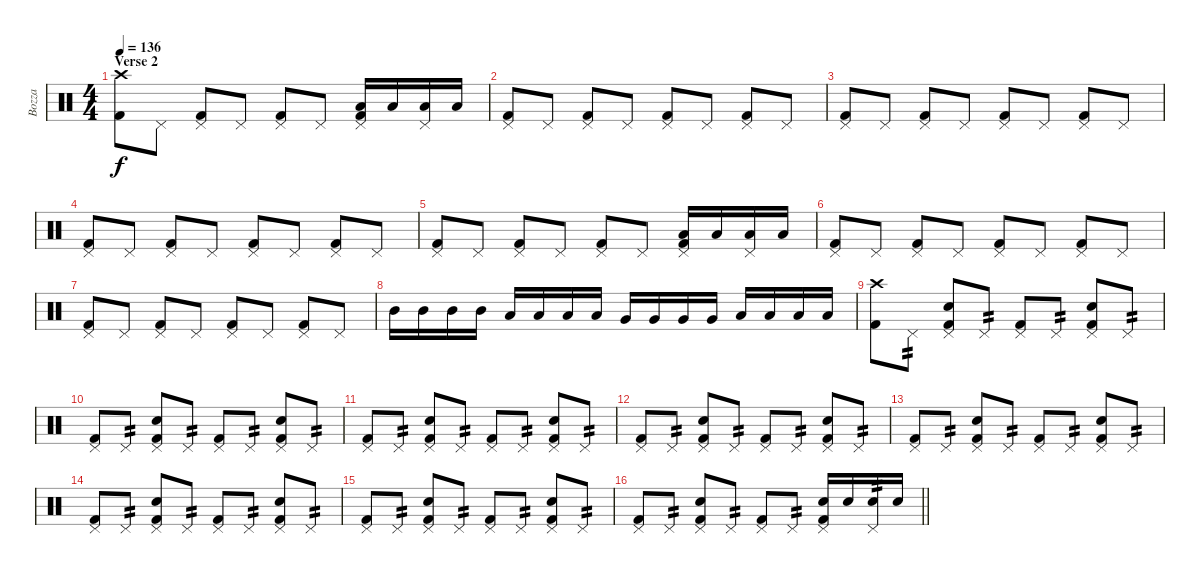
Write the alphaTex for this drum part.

\track ("Bozza" "Bozza") {instrument percussion}
\staff {score}
\articulation defaults
\ts (4 4)
\section ("" "Verse 2")
\tempo 136
\clef neutral
\ks c
("Crash high (hit)" "Kick (hit) 2").8{dy f} "Pedal Hi-Hat (hit)".8 ("Pedal Hi-Hat (hit)" "Kick (hit) 2").8 "Pedal Hi-Hat (hit)".8 ("Pedal Hi-Hat (hit)" "Kick (hit) 2").8 "Pedal Hi-Hat (hit)".8 ("Pedal Hi-Hat (hit)" "Low Floor Tom (hit)" "Kick (hit) 2").16 "Low Floor Tom (hit)".16 ("Pedal Hi-Hat (hit)" "Low Floor Tom (hit)").16 "Low Floor Tom (hit)".16 |
("Pedal Hi-Hat (hit)" "Kick (hit) 2").8 "Pedal Hi-Hat (hit)".8 ("Pedal Hi-Hat (hit)" "Kick (hit) 2").8 "Pedal Hi-Hat (hit)".8 ("Pedal Hi-Hat (hit)" "Kick (hit) 2").8 "Pedal Hi-Hat (hit)".8 ("Pedal Hi-Hat (hit)" "Kick (hit) 2").8 "Pedal Hi-Hat (hit)".8 |
("Pedal Hi-Hat (hit)" "Kick (hit) 2").8 "Pedal Hi-Hat (hit)".8 ("Pedal Hi-Hat (hit)" "Kick (hit) 2").8 "Pedal Hi-Hat (hit)".8 ("Pedal Hi-Hat (hit)" "Kick (hit) 2").8 "Pedal Hi-Hat (hit)".8 ("Pedal Hi-Hat (hit)" "Kick (hit) 2").8 "Pedal Hi-Hat (hit)".8 |
("Pedal Hi-Hat (hit)" "Kick (hit) 2").8 "Pedal Hi-Hat (hit)".8 ("Pedal Hi-Hat (hit)" "Kick (hit) 2").8 "Pedal Hi-Hat (hit)".8 ("Pedal Hi-Hat (hit)" "Kick (hit) 2").8 "Pedal Hi-Hat (hit)".8 ("Pedal Hi-Hat (hit)" "Kick (hit) 2").8 "Pedal Hi-Hat (hit)".8 |
("Pedal Hi-Hat (hit)" "Kick (hit) 2").8 "Pedal Hi-Hat (hit)".8 ("Pedal Hi-Hat (hit)" "Kick (hit) 2").8 "Pedal Hi-Hat (hit)".8 ("Pedal Hi-Hat (hit)" "Kick (hit) 2").8 "Pedal Hi-Hat (hit)".8 ("Pedal Hi-Hat (hit)" "Low Floor Tom (hit)" "Kick (hit) 2").16 "Low Floor Tom (hit)".16 ("Pedal Hi-Hat (hit)" "Low Floor Tom (hit)").16 "Low Floor Tom (hit)".16 |
("Pedal Hi-Hat (hit)" "Kick (hit) 2").8 "Pedal Hi-Hat (hit)".8 ("Pedal Hi-Hat (hit)" "Kick (hit) 2").8 "Pedal Hi-Hat (hit)".8 ("Pedal Hi-Hat (hit)" "Kick (hit) 2").8 "Pedal Hi-Hat (hit)".8 ("Pedal Hi-Hat (hit)" "Kick (hit) 2").8 "Pedal Hi-Hat (hit)".8 |
("Pedal Hi-Hat (hit)" "Kick (hit) 2").8 "Pedal Hi-Hat (hit)".8 ("Pedal Hi-Hat (hit)" "Kick (hit) 2").8 "Pedal Hi-Hat (hit)".8 ("Pedal Hi-Hat (hit)" "Kick (hit) 2").8 "Pedal Hi-Hat (hit)".8 ("Pedal Hi-Hat (hit)" "Kick (hit) 2").8 "Pedal Hi-Hat (hit)".8 |
"Mid Tom (hit)".16 "Mid Tom (hit)".16 "Mid Tom (hit)".16 "Mid Tom (hit)".16 "Low Tom (hit)".16 "Low Tom (hit)".16 "Low Tom (hit)".16 "Low Tom (hit)".16 "Very Low Tom (hit)".16 "Very Low Tom (hit)".16 "Very Low Tom (hit)".16 "Very Low Tom (hit)".16 "Low Floor Tom (hit)".16 "Low Floor Tom (hit)".16 "Low Floor Tom (hit)".16 "Low Floor Tom (hit)".16 |
("Crash high (hit)" "Kick (hit) 2").8 "Pedal Hi-Hat (hit)".8{tp 2} ("Pedal Hi-Hat (hit)" "Snare (hit) 2" "Kick (hit) 2").8 "Pedal Hi-Hat (hit)".8{tp 2} ("Pedal Hi-Hat (hit)" "Kick (hit) 2").8 "Pedal Hi-Hat (hit)".8{tp 2} ("Pedal Hi-Hat (hit)" "Snare (hit) 2" "Kick (hit) 2").8 "Pedal Hi-Hat (hit)".8{tp 2} |
("Pedal Hi-Hat (hit)" "Kick (hit) 2").8 "Pedal Hi-Hat (hit)".8{tp 2} ("Pedal Hi-Hat (hit)" "Snare (hit) 2" "Kick (hit) 2").8 "Pedal Hi-Hat (hit)".8{tp 2} ("Pedal Hi-Hat (hit)" "Kick (hit) 2").8 "Pedal Hi-Hat (hit)".8{tp 2} ("Pedal Hi-Hat (hit)" "Snare (hit) 2" "Kick (hit) 2").8 "Pedal Hi-Hat (hit)".8{tp 2} |
("Pedal Hi-Hat (hit)" "Kick (hit) 2").8 "Pedal Hi-Hat (hit)".8{tp 2} ("Pedal Hi-Hat (hit)" "Snare (hit) 2" "Kick (hit) 2").8 "Pedal Hi-Hat (hit)".8{tp 2} ("Pedal Hi-Hat (hit)" "Kick (hit) 2").8 "Pedal Hi-Hat (hit)".8{tp 2} ("Pedal Hi-Hat (hit)" "Snare (hit) 2" "Kick (hit) 2").8 "Pedal Hi-Hat (hit)".8{tp 2} |
("Pedal Hi-Hat (hit)" "Kick (hit) 2").8 "Pedal Hi-Hat (hit)".8{tp 2} ("Pedal Hi-Hat (hit)" "Snare (hit) 2" "Kick (hit) 2").8 "Pedal Hi-Hat (hit)".8{tp 2} ("Pedal Hi-Hat (hit)" "Kick (hit) 2").8 "Pedal Hi-Hat (hit)".8{tp 2} ("Pedal Hi-Hat (hit)" "Snare (hit) 2" "Kick (hit) 2").8 "Pedal Hi-Hat (hit)".8{tp 2} |
("Pedal Hi-Hat (hit)" "Kick (hit) 2").8 "Pedal Hi-Hat (hit)".8{tp 2} ("Pedal Hi-Hat (hit)" "Snare (hit) 2" "Kick (hit) 2").8 "Pedal Hi-Hat (hit)".8{tp 2} ("Pedal Hi-Hat (hit)" "Kick (hit) 2").8 "Pedal Hi-Hat (hit)".8{tp 2} ("Pedal Hi-Hat (hit)" "Snare (hit) 2" "Kick (hit) 2").8 "Pedal Hi-Hat (hit)".8{tp 2} |
("Pedal Hi-Hat (hit)" "Kick (hit) 2").8 "Pedal Hi-Hat (hit)".8{tp 2} ("Pedal Hi-Hat (hit)" "Snare (hit) 2" "Kick (hit) 2").8 "Pedal Hi-Hat (hit)".8{tp 2} ("Pedal Hi-Hat (hit)" "Kick (hit) 2").8 "Pedal Hi-Hat (hit)".8{tp 2} ("Pedal Hi-Hat (hit)" "Snare (hit) 2" "Kick (hit) 2").8 "Pedal Hi-Hat (hit)".8{tp 2} |
("Pedal Hi-Hat (hit)" "Kick (hit) 2").8 "Pedal Hi-Hat (hit)".8{tp 2} ("Pedal Hi-Hat (hit)" "Snare (hit) 2" "Kick (hit) 2").8 "Pedal Hi-Hat (hit)".8{tp 2} ("Pedal Hi-Hat (hit)" "Kick (hit) 2").8 "Pedal Hi-Hat (hit)".8{tp 2} ("Pedal Hi-Hat (hit)" "Snare (hit) 2" "Kick (hit) 2").8 "Pedal Hi-Hat (hit)".8{tp 2} |
\barLineRight lightlight
("Pedal Hi-Hat (hit)" "Kick (hit) 2").8 "Pedal Hi-Hat (hit)".8{tp 2} ("Pedal Hi-Hat (hit)" "Snare (hit) 2" "Kick (hit) 2").8 "Pedal Hi-Hat (hit)".8{tp 2} ("Pedal Hi-Hat (hit)" "Kick (hit) 2").8 "Pedal Hi-Hat (hit)".8{tp 2} ("Pedal Hi-Hat (hit)" "Snare (hit) 2" "Kick (hit) 2").16 "Snare (hit) 2".16 ("Pedal Hi-Hat (hit)" "Snare (hit) 2").16{tp 2} "Snare (hit) 2".16
